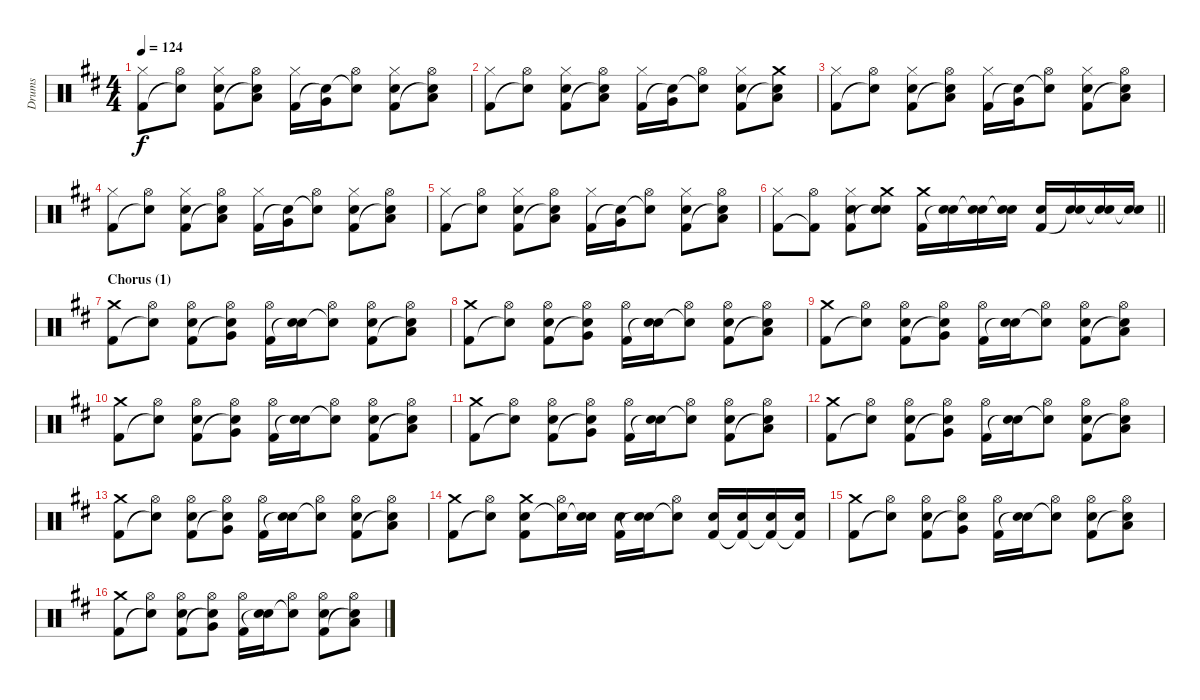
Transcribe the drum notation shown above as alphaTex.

\track ("Drums" "Drums") {instrument percussion}
\staff {score}
\articulation defaults
\ts (4 4)
\tempo 124
\clef neutral
\ks d
("Hi-Hat (closed)" "Kick (hit) 2").8{dy f} ("Hi-Hat (open)" "Snare (hit)"{t}).8 ("Hi-Hat (closed)" "Electric Snare (hit)" "Kick (hit) 2").8 ("Hi-Hat (open)" "Low Tom (hit)" "Snare (hit)"{t}).8 ("Hi-Hat (closed)" "Kick (hit) 2").16 ("Very Low Tom (hit)" "Snare (hit)"{t}).16 ("Hi-Hat (open)" "Snare (hit)"{t}).8 ("Hi-Hat (closed)" "Electric Snare (hit)" "Kick (hit) 2").8 ("Hi-Hat (open)" "Low Floor Tom (hit)" "Snare (hit)"{t}).8 |
("Hi-Hat (closed)" "Kick (hit) 2").8 ("Hi-Hat (open)" "Snare (hit)"{t}).8 ("Hi-Hat (closed)" "Electric Snare (hit)" "Kick (hit) 2").8 ("Hi-Hat (open)" "Low Tom (hit)" "Snare (hit)"{t}).8 ("Hi-Hat (closed)" "Kick (hit) 2").16 ("Very Low Tom (hit)" "Snare (hit)"{t}).16 ("Hi-Hat (open)" "Snare (hit)"{t}).8 ("Hi-Hat (closed)" "Electric Snare (hit)" "Kick (hit) 2").8 ("Crash medium (hit)" "Low Floor Tom (hit)" "Snare (hit)"{t}).8 |
("Hi-Hat (closed)" "Kick (hit) 2").8 ("Hi-Hat (open)" "Snare (hit)"{t}).8 ("Hi-Hat (closed)" "Electric Snare (hit)" "Kick (hit) 2").8 ("Hi-Hat (open)" "Low Tom (hit)" "Snare (hit)"{t}).8 ("Hi-Hat (closed)" "Kick (hit) 2").16 ("Very Low Tom (hit)" "Snare (hit)"{t}).16 ("Hi-Hat (open)" "Snare (hit)"{t}).8 ("Hi-Hat (closed)" "Electric Snare (hit)" "Kick (hit) 2").8 ("Hi-Hat (open)" "Low Floor Tom (hit)" "Snare (hit)"{t}).8 |
("Hi-Hat (closed)" "Kick (hit) 2").8 ("Hi-Hat (open)" "Snare (hit)"{t}).8 ("Hi-Hat (closed)" "Electric Snare (hit)" "Kick (hit) 2").8 ("Hi-Hat (open)" "Low Tom (hit)" "Snare (hit)"{t}).8 ("Hi-Hat (closed)" "Kick (hit) 2").16 ("Very Low Tom (hit)" "Snare (hit)"{t}).16 ("Hi-Hat (open)" "Snare (hit)"{t}).8 ("Hi-Hat (closed)" "Electric Snare (hit)" "Kick (hit) 2").8 ("Hi-Hat (open)" "Low Floor Tom (hit)" "Snare (hit)"{t}).8 |
("Hi-Hat (closed)" "Kick (hit) 2").8 ("Hi-Hat (open)" "Snare (hit)"{t}).8 ("Hi-Hat (closed)" "Electric Snare (hit)" "Kick (hit) 2").8 ("Hi-Hat (open)" "Low Tom (hit)" "Snare (hit)"{t}).8 ("Hi-Hat (closed)" "Kick (hit) 2").16 ("Very Low Tom (hit)" "Snare (hit)"{t}).16 ("Hi-Hat (open)" "Snare (hit)"{t}).8 ("Hi-Hat (closed)" "Electric Snare (hit)" "Kick (hit) 2").8 ("Hi-Hat (open)" "Low Floor Tom (hit)" "Snare (hit)"{t}).8 |
\barLineRight lightlight
("Hi-Hat (closed)" "Kick (hit) 2").8 ("Hi-Hat (open)" "Kick (hit) 2"{t}).8 ("Hi-Hat (closed)" "Electric Snare (hit)" "Kick (hit) 2").8 ("Crash medium (hit)" "Electric Snare (hit)" "Snare (hit)"{t}).8 ("Crash medium (hit)" "Kick (hit) 2").16 ("Electric Snare (hit)" "Snare (hit)"{t}).16 ("Electric Snare (hit)" "Snare (hit)"{t}).16 ("Electric Snare (hit)" "Snare (hit)"{t}).16 ("Electric Snare (hit)" "Kick (hit) 2").16 ("Electric Snare (hit)" "Snare (hit)"{t}).16 ("Electric Snare (hit)" "Snare (hit)"{t}).16 ("Electric Snare (hit)" "Snare (hit)"{t}).16 |
\section ("" "Chorus (1)")
("Crash medium (hit)" "Kick (hit) 2").8 ("Hi-Hat (open)" "Snare (hit)"{t}).8 ("Hi-Hat (open)" "Electric Snare (hit)" "Kick (hit) 2").8 ("Hi-Hat (open)" "Very Low Tom (hit)" "Snare (hit)"{t}).8 ("Hi-Hat (open)" "Kick (hit) 2").16 ("Electric Snare (hit)" "Snare (hit)"{t}).16 ("Hi-Hat (open)" "Snare (hit)"{t}).8 ("Hi-Hat (open)" "Electric Snare (hit)" "Kick (hit) 2").8 ("Hi-Hat (open)" "Low Floor Tom (hit)" "Snare (hit)"{t}).8 |
("Crash medium (hit)" "Kick (hit) 2").8 ("Hi-Hat (open)" "Snare (hit)"{t}).8 ("Hi-Hat (open)" "Electric Snare (hit)" "Kick (hit) 2").8 ("Hi-Hat (open)" "Very Low Tom (hit)" "Snare (hit)"{t}).8 ("Hi-Hat (open)" "Kick (hit) 2").16 ("Electric Snare (hit)" "Snare (hit)"{t}).16 ("Hi-Hat (open)" "Snare (hit)"{t}).8 ("Hi-Hat (open)" "Electric Snare (hit)" "Kick (hit) 2").8 ("Hi-Hat (open)" "Low Floor Tom (hit)" "Snare (hit)"{t}).8 |
("Crash medium (hit)" "Kick (hit) 2").8 ("Hi-Hat (open)" "Snare (hit)"{t}).8 ("Hi-Hat (open)" "Electric Snare (hit)" "Kick (hit) 2").8 ("Hi-Hat (open)" "Very Low Tom (hit)" "Snare (hit)"{t}).8 ("Hi-Hat (open)" "Kick (hit) 2").16 ("Electric Snare (hit)" "Snare (hit)"{t}).16 ("Hi-Hat (open)" "Snare (hit)"{t}).8 ("Hi-Hat (open)" "Electric Snare (hit)" "Kick (hit) 2").8 ("Hi-Hat (open)" "Low Floor Tom (hit)" "Snare (hit)"{t}).8 |
("Crash medium (hit)" "Kick (hit) 2").8 ("Hi-Hat (open)" "Snare (hit)"{t}).8 ("Hi-Hat (open)" "Electric Snare (hit)" "Kick (hit) 2").8 ("Hi-Hat (open)" "Very Low Tom (hit)" "Snare (hit)"{t}).8 ("Hi-Hat (open)" "Kick (hit) 2").16 ("Electric Snare (hit)" "Snare (hit)"{t}).16 ("Hi-Hat (open)" "Snare (hit)"{t}).8 ("Hi-Hat (open)" "Electric Snare (hit)" "Kick (hit) 2").8 ("Hi-Hat (open)" "Low Floor Tom (hit)" "Snare (hit)"{t}).8 |
("Crash medium (hit)" "Kick (hit) 2").8 ("Hi-Hat (open)" "Snare (hit)"{t}).8 ("Hi-Hat (open)" "Electric Snare (hit)" "Kick (hit) 2").8 ("Hi-Hat (open)" "Very Low Tom (hit)" "Snare (hit)"{t}).8 ("Hi-Hat (open)" "Kick (hit) 2").16 ("Electric Snare (hit)" "Snare (hit)"{t}).16 ("Hi-Hat (open)" "Snare (hit)"{t}).8 ("Hi-Hat (open)" "Electric Snare (hit)" "Kick (hit) 2").8 ("Hi-Hat (open)" "Low Floor Tom (hit)" "Snare (hit)"{t}).8 |
("Crash medium (hit)" "Kick (hit) 2").8 ("Hi-Hat (open)" "Snare (hit)"{t}).8 ("Hi-Hat (open)" "Electric Snare (hit)" "Kick (hit) 2").8 ("Hi-Hat (open)" "Very Low Tom (hit)" "Snare (hit)"{t}).8 ("Hi-Hat (open)" "Kick (hit) 2").16 ("Electric Snare (hit)" "Snare (hit)"{t}).16 ("Hi-Hat (open)" "Snare (hit)"{t}).8 ("Hi-Hat (open)" "Electric Snare (hit)" "Kick (hit) 2").8 ("Hi-Hat (open)" "Low Floor Tom (hit)" "Snare (hit)"{t}).8 |
("Crash medium (hit)" "Kick (hit) 2").8 ("Hi-Hat (open)" "Snare (hit)"{t}).8 ("Hi-Hat (open)" "Electric Snare (hit)" "Kick (hit) 2").8 ("Hi-Hat (open)" "Very Low Tom (hit)" "Snare (hit)"{t}).8 ("Hi-Hat (open)" "Kick (hit) 2").16 ("Electric Snare (hit)" "Snare (hit)"{t}).16 ("Hi-Hat (open)" "Snare (hit)"{t}).8 ("Hi-Hat (open)" "Electric Snare (hit)" "Kick (hit) 2").8 ("Hi-Hat (open)" "Low Floor Tom (hit)" "Snare (hit)"{t}).8 |
("Crash medium (hit)" "Kick (hit) 2").8 ("Hi-Hat (open)" "Snare (hit)"{t}).8 ("Crash medium (hit)" "Electric Snare (hit)" "Kick (hit) 2").8 ("Hi-Hat (open)" "Snare (hit)"{t}).16 ("Electric Snare (hit)" "Snare (hit)"{t}).16 ("Electric Snare (hit)" "Kick (hit) 2").16 ("Electric Snare (hit)" "Snare (hit)"{t}).16 ("Hi-Hat (open)" "Snare (hit)"{t}).8 ("Electric Snare (hit)" "Kick (hit) 2").16 ("Electric Snare (hit)" "Kick (hit) 2"{t}).16 ("Electric Snare (hit)" "Kick (hit) 2"{t}).16 ("Electric Snare (hit)" "Kick (hit) 2"{t}).16 |
("Crash medium (hit)" "Kick (hit) 2").8 ("Hi-Hat (open)" "Snare (hit)"{t}).8 ("Hi-Hat (open)" "Electric Snare (hit)" "Kick (hit) 2").8 ("Hi-Hat (open)" "Very Low Tom (hit)" "Snare (hit)"{t}).8 ("Hi-Hat (open)" "Kick (hit) 2").16 ("Electric Snare (hit)" "Snare (hit)"{t}).16 ("Hi-Hat (open)" "Snare (hit)"{t}).8 ("Hi-Hat (open)" "Electric Snare (hit)" "Kick (hit) 2").8 ("Hi-Hat (open)" "Low Floor Tom (hit)" "Snare (hit)"{t}).8 |
("Crash medium (hit)" "Kick (hit) 2").8 ("Hi-Hat (open)" "Snare (hit)"{t}).8 ("Hi-Hat (open)" "Electric Snare (hit)" "Kick (hit) 2").8 ("Hi-Hat (open)" "Very Low Tom (hit)" "Snare (hit)"{t}).8 ("Hi-Hat (open)" "Kick (hit) 2").16 ("Electric Snare (hit)" "Snare (hit)"{t}).16 ("Hi-Hat (open)" "Snare (hit)"{t}).8 ("Hi-Hat (open)" "Electric Snare (hit)" "Kick (hit) 2").8 ("Hi-Hat (open)" "Low Floor Tom (hit)" "Snare (hit)"{t}).8
